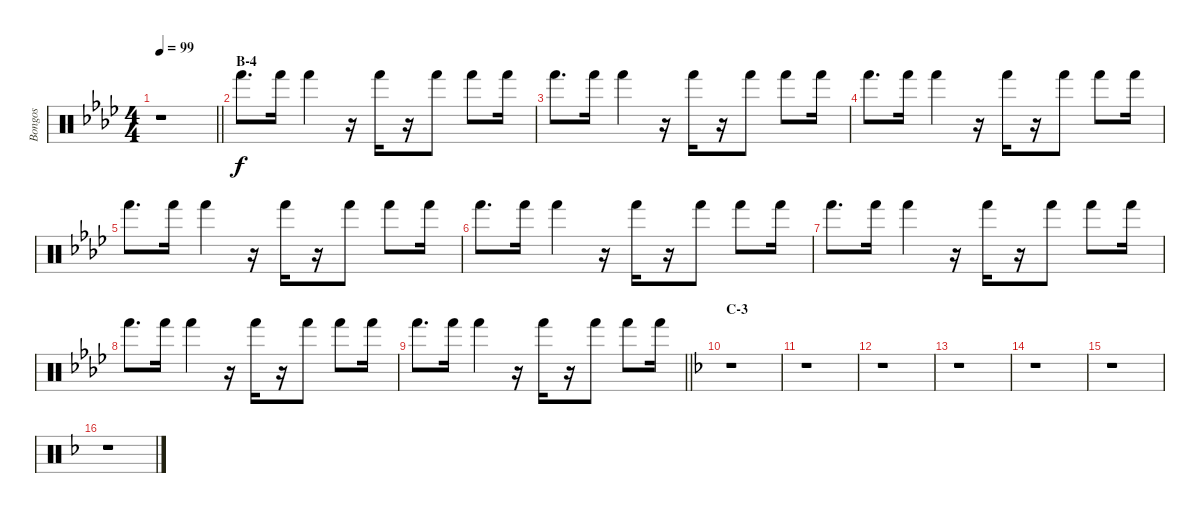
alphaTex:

\track ("Bongos" "Bongos") {instrument percussion}
\staff {score}
\articulation defaults
\ts (4 4)
\tempo 99
\clef neutral
\barLineRight lightlight
\ks ab
r.1{dy f} |
\section ("" "B-4")
"Hand (hit)".8{d} "Hand (hit)".16 "Hand (hit)".4 r.16 "Hand (hit)".16 r.16 "Hand (hit)".8 "Hand (hit)".8 "Hand (hit)".16 |
"Hand (hit)".8{d} "Hand (hit)".16 "Hand (hit)".4 r.16 "Hand (hit)".16 r.16 "Hand (hit)".8 "Hand (hit)".8 "Hand (hit)".16 |
"Hand (hit)".8{d} "Hand (hit)".16 "Hand (hit)".4 r.16 "Hand (hit)".16 r.16 "Hand (hit)".8 "Hand (hit)".8 "Hand (hit)".16 |
"Hand (hit)".8{d} "Hand (hit)".16 "Hand (hit)".4 r.16 "Hand (hit)".16 r.16 "Hand (hit)".8 "Hand (hit)".8 "Hand (hit)".16 |
"Hand (hit)".8{d} "Hand (hit)".16 "Hand (hit)".4 r.16 "Hand (hit)".16 r.16 "Hand (hit)".8 "Hand (hit)".8 "Hand (hit)".16 |
"Hand (hit)".8{d} "Hand (hit)".16 "Hand (hit)".4 r.16 "Hand (hit)".16 r.16 "Hand (hit)".8 "Hand (hit)".8 "Hand (hit)".16 |
"Hand (hit)".8{d} "Hand (hit)".16 "Hand (hit)".4 r.16 "Hand (hit)".16 r.16 "Hand (hit)".8 "Hand (hit)".8 "Hand (hit)".16 |
\barLineRight lightlight "Hand (hit)".8{d} "Hand (hit)".16 "Hand (hit)".4
r.16 "Hand (hit)".16 r.16 "Hand (hit)".8 "Hand (hit)".8 "Hand (hit)".16 |
\section ("" "C-3")
\ks f
r.1 |
r.1 |
r.1 |
r.1 |
r.1 |
r.1 |
r.1
